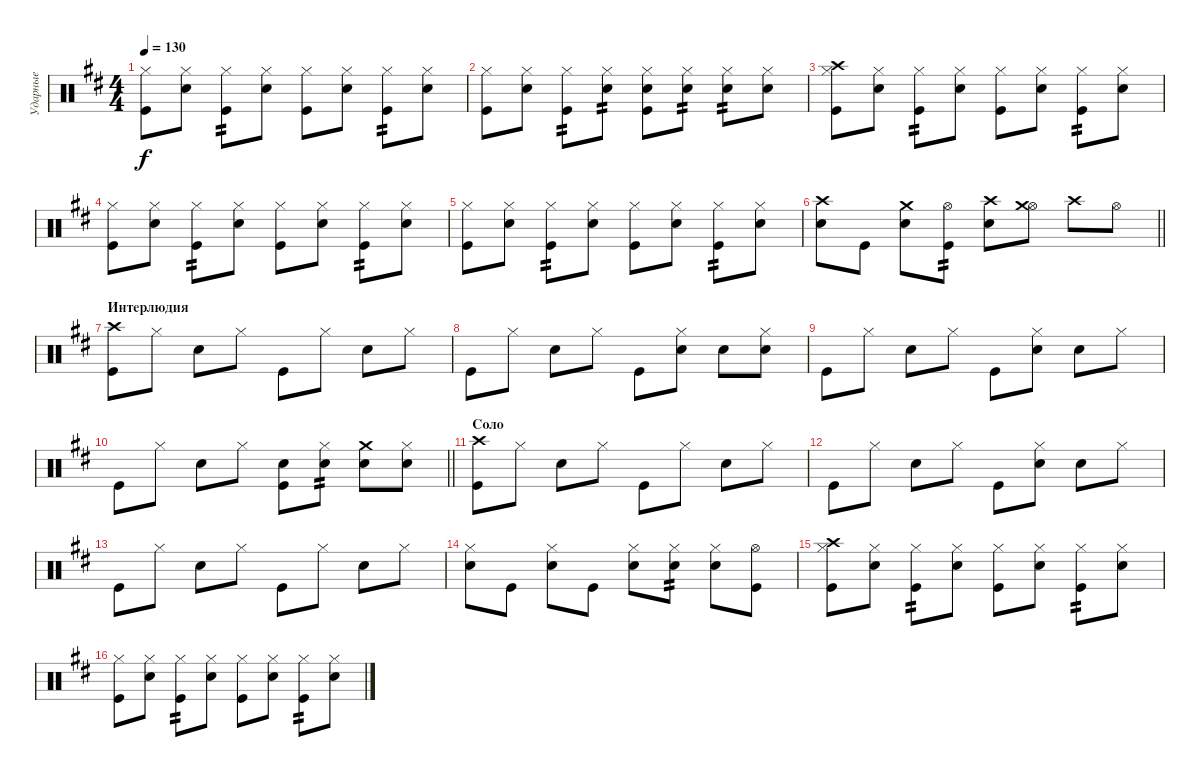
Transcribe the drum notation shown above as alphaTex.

\track ("Ударные" "Ударные") {instrument percussion}
\staff {score}
\articulation defaults
\ts (4 4)
\tempo 130
\clef neutral
\ks bminor
("Hi-Hat (closed)" "Kick (hit)").8{dy f} ("Hi-Hat (closed)" "Electric Snare (hit)").8 ("Hi-Hat (closed)" "Kick (hit)").8{tp 2} ("Hi-Hat (closed)" "Electric Snare (hit)").8 ("Hi-Hat (closed)" "Kick (hit)").8 ("Hi-Hat (closed)" "Electric Snare (hit)").8 ("Hi-Hat (closed)" "Kick (hit)").8{tp 2} ("Hi-Hat (closed)" "Electric Snare (hit)").8 |
("Hi-Hat (closed)" "Kick (hit)").8 ("Hi-Hat (closed)" "Electric Snare (hit)").8 ("Hi-Hat (closed)" "Kick (hit)").8{tp 2} ("Hi-Hat (closed)" "Electric Snare (hit)").8{tp 2} ("Hi-Hat (closed)" "Electric Snare (hit)" "Kick (hit)").8 ("Hi-Hat (closed)" "Electric Snare (hit)").8{tp 2} ("Hi-Hat (closed)" "Electric Snare (hit)").8{tp 2} ("Hi-Hat (closed)" "Electric Snare (hit)").8 |
("Hi-Hat (closed)" "Crash high (hit)" "Kick (hit)").8 ("Hi-Hat (closed)" "Electric Snare (hit)").8 ("Hi-Hat (closed)" "Kick (hit)").8{tp 2} ("Hi-Hat (closed)" "Electric Snare (hit)").8 ("Hi-Hat (closed)" "Kick (hit)").8 ("Hi-Hat (closed)" "Electric Snare (hit)").8 ("Hi-Hat (closed)" "Kick (hit)").8{tp 2} ("Hi-Hat (closed)" "Electric Snare (hit)").8 |
("Hi-Hat (closed)" "Kick (hit)").8 ("Hi-Hat (closed)" "Electric Snare (hit)").8 ("Hi-Hat (closed)" "Kick (hit)").8{tp 2} ("Hi-Hat (closed)" "Electric Snare (hit)").8 ("Hi-Hat (closed)" "Kick (hit)").8 ("Hi-Hat (closed)" "Electric Snare (hit)").8 ("Hi-Hat (closed)" "Kick (hit)").8{tp 2} ("Hi-Hat (closed)" "Electric Snare (hit)").8 |
("Hi-Hat (closed)" "Kick (hit)").8 ("Hi-Hat (closed)" "Electric Snare (hit)").8 ("Hi-Hat (closed)" "Kick (hit)").8{tp 2} ("Hi-Hat (closed)" "Electric Snare (hit)").8 ("Hi-Hat (closed)" "Kick (hit)").8 ("Hi-Hat (closed)" "Electric Snare (hit)").8 ("Hi-Hat (closed)" "Kick (hit)").8{tp 2} ("Hi-Hat (closed)" "Electric Snare (hit)").8 |
\barLineRight lightlight
("Crash high (hit)" "Electric Snare (hit)").8 "Kick (hit)".8 ("Crash medium (hit)" "Electric Snare (hit)").8 ("Hi-Hat (open)" "Kick (hit)").8{tp 2} ("Crash high (hit)" "Electric Snare (hit)").8 ("Hi-Hat (open)" "Crash medium (hit)").8 "Crash high (hit)".8 "Hi-Hat (open)".8 |
\section ("" "Интерлюдия")
("Crash high (hit)" "Kick (hit)").8 "Hi-Hat (closed)".8 "Electric Snare (hit)".8 "Hi-Hat (closed)".8 "Kick (hit)".8 "Hi-Hat (closed)".8 "Electric Snare (hit)".8 "Hi-Hat (closed)".8 |
"Kick (hit)".8 "Hi-Hat (closed)".8 "Electric Snare (hit)".8 "Hi-Hat (closed)".8 "Kick (hit)".8 ("Hi-Hat (closed)" "Electric Snare (hit)").8 "Electric Snare (hit)".8 ("Hi-Hat (closed)" "Electric Snare (hit)").8 |
"Kick (hit)".8 "Hi-Hat (closed)".8 "Electric Snare (hit)".8 "Hi-Hat (closed)".8 "Kick (hit)".8 ("Hi-Hat (closed)" "Electric Snare (hit)").8 "Electric Snare (hit)".8 "Hi-Hat (closed)".8 |
\barLineRight lightlight "Kick (hit)".8 "Hi-Hat (closed)".8 "Electric Snare (hit)".8 "Hi-Hat (closed)".8
("Electric Snare (hit)" "Kick (hit)").8 ("Hi-Hat (closed)" "Electric Snare (hit)").8{tp 2} ("Crash medium (hit)" "Electric Snare (hit)").8 ("Hi-Hat (closed)" "Electric Snare (hit)").8 |
\section ("" "Соло")
("Crash high (hit)" "Kick (hit)").8 "Hi-Hat (closed)".8 "Electric Snare (hit)".8 "Hi-Hat (closed)".8 "Kick (hit)".8 "Hi-Hat (closed)".8 "Electric Snare (hit)".8 "Hi-Hat (closed)".8 |
"Kick (hit)".8 "Hi-Hat (closed)".8 "Electric Snare (hit)".8 "Hi-Hat (closed)".8 "Kick (hit)".8 ("Hi-Hat (closed)" "Electric Snare (hit)").8 "Electric Snare (hit)".8 "Hi-Hat (closed)".8 |
"Kick (hit)".8 "Hi-Hat (closed)".8 "Electric Snare (hit)".8 "Hi-Hat (closed)".8 "Kick (hit)".8 "Hi-Hat (closed)".8 "Electric Snare (hit)".8 "Hi-Hat (closed)".8 |
("Hi-Hat (closed)" "Electric Snare (hit)").8 "Kick (hit)".8 ("Hi-Hat (closed)" "Electric Snare (hit)").8 "Kick (hit)".8 ("Hi-Hat (closed)" "Electric Snare (hit)").8 ("Hi-Hat (closed)" "Electric Snare (hit)").8{tp 2} ("Hi-Hat (closed)" "Electric Snare (hit)").8 ("Hi-Hat (open)" "Kick (hit)").8 |
("Hi-Hat (closed)" "Crash high (hit)" "Kick (hit)").8 ("Hi-Hat (closed)" "Electric Snare (hit)").8 ("Hi-Hat (closed)" "Kick (hit)").8{tp 2} ("Hi-Hat (closed)" "Electric Snare (hit)").8 ("Hi-Hat (closed)" "Kick (hit)").8 ("Hi-Hat (closed)" "Electric Snare (hit)").8 ("Hi-Hat (closed)" "Kick (hit)").8{tp 2} ("Hi-Hat (closed)" "Electric Snare (hit)").8 |
("Hi-Hat (closed)" "Kick (hit)").8 ("Hi-Hat (closed)" "Electric Snare (hit)").8 ("Hi-Hat (closed)" "Kick (hit)").8{tp 2} ("Hi-Hat (closed)" "Electric Snare (hit)").8 ("Hi-Hat (closed)" "Kick (hit)").8 ("Hi-Hat (closed)" "Electric Snare (hit)").8 ("Hi-Hat (closed)" "Kick (hit)").8{tp 2} ("Hi-Hat (closed)" "Electric Snare (hit)").8
